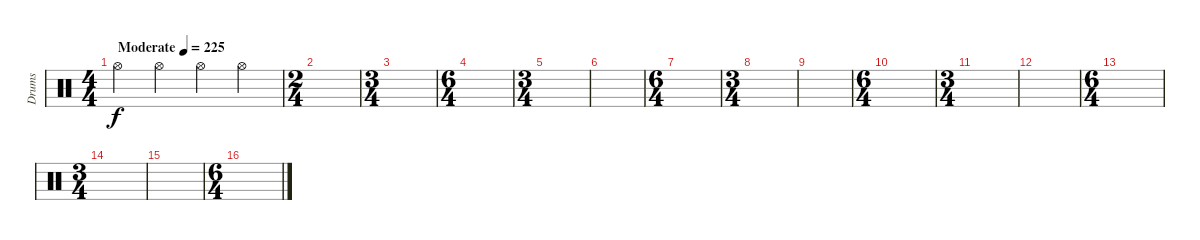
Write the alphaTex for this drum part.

\track ("Drums" "Drums") {instrument percussion}
\staff {score}
\articulation defaults
\ts (4 4)
\tempo (225 "Moderate")
\clef neutral
\ks c "Hi-Hat (open)".4{dy f} "Hi-Hat (open)".4 "Hi-Hat (open)".4 "Hi-Hat (open)".4
|
\ts (2 4)
|
\ts (3 4)
|
\ts (6 4)
|
\ts (3 4)
|
|
\ts (6 4)
|
\ts (3 4)
|
|
\ts (6 4)
|
\ts (3 4)
|
|
\ts (6 4)
|
\ts (3 4)
|
|
\ts (6 4)
